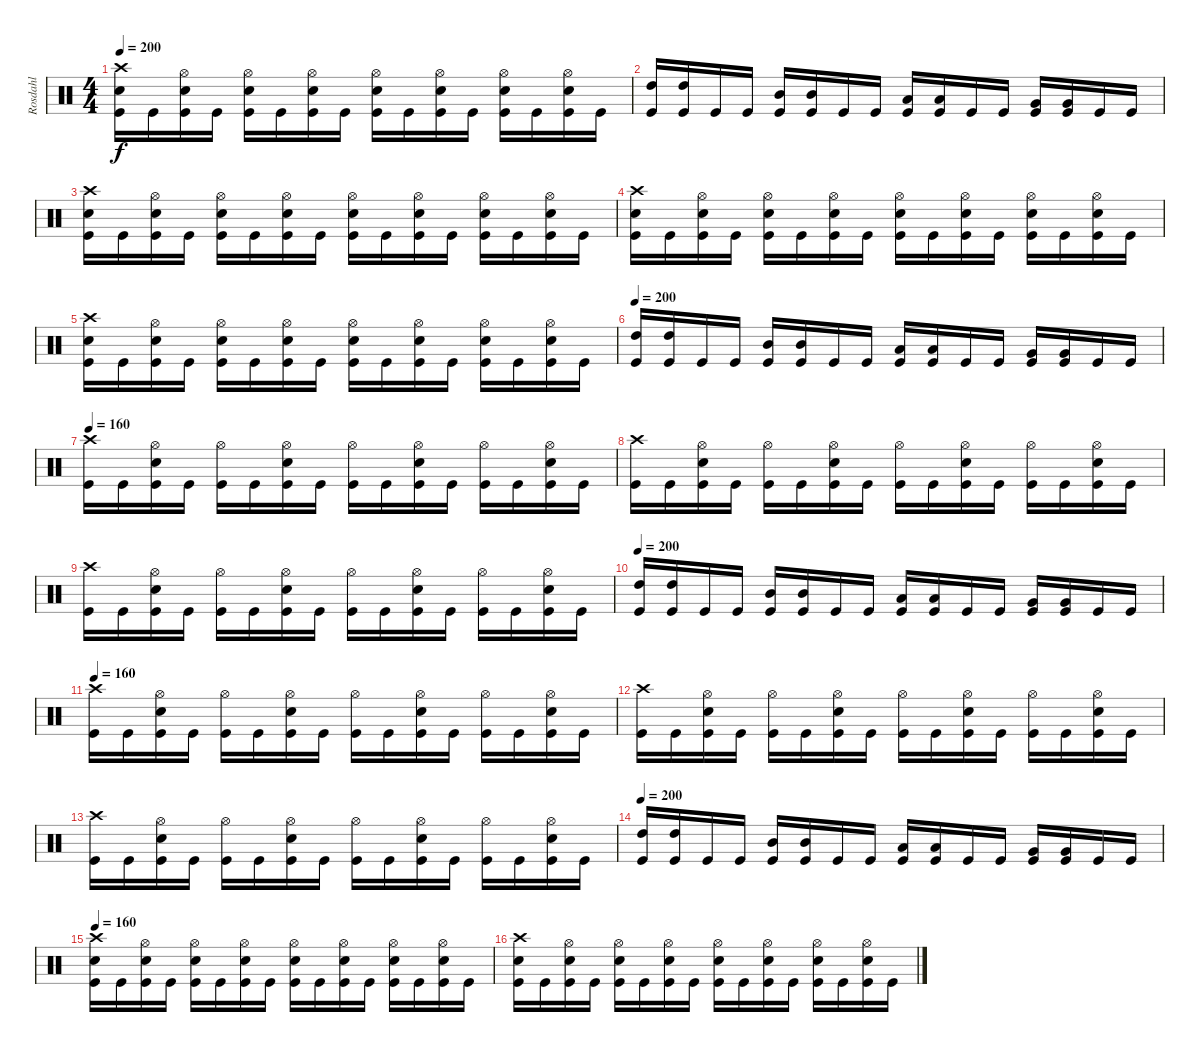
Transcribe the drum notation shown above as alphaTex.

\track ("Rosdahl" "Rosdahl") {instrument percussion}
\staff {score}
\articulation defaults
\ts (4 4)
\tempo 200
\clef neutral
\ks c
("Crash high (hit)" "Electric Snare (hit)" "Kick (hit)").16{dy f} "Kick (hit)".16 ("Hi-Hat (open)" "Electric Snare (hit)" "Kick (hit)").16 "Kick (hit)".16 ("Hi-Hat (open)" "Electric Snare (hit)" "Kick (hit)").16 "Kick (hit)".16 ("Hi-Hat (open)" "Electric Snare (hit)" "Kick (hit)").16 "Kick (hit)".16 ("Hi-Hat (open)" "Electric Snare (hit)" "Kick (hit)").16 "Kick (hit)".16 ("Hi-Hat (open)" "Electric Snare (hit)" "Kick (hit)").16 "Kick (hit)".16 ("Hi-Hat (open)" "Electric Snare (hit)" "Kick (hit)").16 "Kick (hit)".16 ("Hi-Hat (open)" "Electric Snare (hit)" "Kick (hit)").16 "Kick (hit)".16 |
("High Tom (hit)" "Kick (hit)").16 ("High Tom (hit)" "Kick (hit)").16 "Kick (hit)".16 "Kick (hit)".16 ("Mid Tom (hit)" "Kick (hit)").16 ("Mid Tom (hit)" "Kick (hit)").16 "Kick (hit)".16 "Kick (hit)".16 ("Low Tom (hit)" "Kick (hit)").16 ("Low Tom (hit)" "Kick (hit)").16 "Kick (hit)".16 "Kick (hit)".16 ("Very Low Tom (hit)" "Kick (hit)").16 ("Very Low Tom (hit)" "Kick (hit)").16 "Kick (hit)".16 "Kick (hit)".16 |
("Crash high (hit)" "Electric Snare (hit)" "Kick (hit)").16 "Kick (hit)".16 ("Hi-Hat (open)" "Electric Snare (hit)" "Kick (hit)").16 "Kick (hit)".16 ("Hi-Hat (open)" "Electric Snare (hit)" "Kick (hit)").16 "Kick (hit)".16 ("Hi-Hat (open)" "Electric Snare (hit)" "Kick (hit)").16 "Kick (hit)".16 ("Hi-Hat (open)" "Electric Snare (hit)" "Kick (hit)").16 "Kick (hit)".16 ("Hi-Hat (open)" "Electric Snare (hit)" "Kick (hit)").16 "Kick (hit)".16 ("Hi-Hat (open)" "Electric Snare (hit)" "Kick (hit)").16 "Kick (hit)".16 ("Hi-Hat (open)" "Electric Snare (hit)" "Kick (hit)").16 "Kick (hit)".16 |
("Crash high (hit)" "Electric Snare (hit)" "Kick (hit)").16 "Kick (hit)".16 ("Hi-Hat (open)" "Electric Snare (hit)" "Kick (hit)").16 "Kick (hit)".16 ("Hi-Hat (open)" "Electric Snare (hit)" "Kick (hit)").16 "Kick (hit)".16 ("Hi-Hat (open)" "Electric Snare (hit)" "Kick (hit)").16 "Kick (hit)".16 ("Hi-Hat (open)" "Electric Snare (hit)" "Kick (hit)").16 "Kick (hit)".16 ("Hi-Hat (open)" "Electric Snare (hit)" "Kick (hit)").16 "Kick (hit)".16 ("Hi-Hat (open)" "Electric Snare (hit)" "Kick (hit)").16 "Kick (hit)".16 ("Hi-Hat (open)" "Electric Snare (hit)" "Kick (hit)").16 "Kick (hit)".16 |
("Crash high (hit)" "Electric Snare (hit)" "Kick (hit)").16 "Kick (hit)".16 ("Hi-Hat (open)" "Electric Snare (hit)" "Kick (hit)").16 "Kick (hit)".16 ("Hi-Hat (open)" "Electric Snare (hit)" "Kick (hit)").16 "Kick (hit)".16 ("Hi-Hat (open)" "Electric Snare (hit)" "Kick (hit)").16 "Kick (hit)".16 ("Hi-Hat (open)" "Electric Snare (hit)" "Kick (hit)").16 "Kick (hit)".16 ("Hi-Hat (open)" "Electric Snare (hit)" "Kick (hit)").16 "Kick (hit)".16 ("Hi-Hat (open)" "Electric Snare (hit)" "Kick (hit)").16 "Kick (hit)".16 ("Hi-Hat (open)" "Electric Snare (hit)" "Kick (hit)").16 "Kick (hit)".16 |
\tempo 200
("High Tom (hit)" "Kick (hit)").16 ("High Tom (hit)" "Kick (hit)").16 "Kick (hit)".16 "Kick (hit)".16 ("Mid Tom (hit)" "Kick (hit)").16 ("Mid Tom (hit)" "Kick (hit)").16 "Kick (hit)".16 "Kick (hit)".16 ("Low Tom (hit)" "Kick (hit)").16 ("Low Tom (hit)" "Kick (hit)").16 "Kick (hit)".16 "Kick (hit)".16 ("Very Low Tom (hit)" "Kick (hit)").16 ("Very Low Tom (hit)" "Kick (hit)").16 "Kick (hit)".16 "Kick (hit)".16 |
\tempo 160
("Crash high (hit)" "Kick (hit)").16 "Kick (hit)".16 ("Hi-Hat (open)" "Electric Snare (hit)" "Kick (hit)").16 "Kick (hit)".16 ("Hi-Hat (open)" "Kick (hit)").16 "Kick (hit)".16 ("Hi-Hat (open)" "Electric Snare (hit)" "Kick (hit)").16 "Kick (hit)".16 ("Hi-Hat (open)" "Kick (hit)").16 "Kick (hit)".16 ("Hi-Hat (open)" "Electric Snare (hit)" "Kick (hit)").16 "Kick (hit)".16 ("Hi-Hat (open)" "Kick (hit)").16 "Kick (hit)".16 ("Hi-Hat (open)" "Electric Snare (hit)" "Kick (hit)").16 "Kick (hit)".16 |
("Crash high (hit)" "Kick (hit)").16 "Kick (hit)".16 ("Hi-Hat (open)" "Electric Snare (hit)" "Kick (hit)").16 "Kick (hit)".16 ("Hi-Hat (open)" "Kick (hit)").16 "Kick (hit)".16 ("Hi-Hat (open)" "Electric Snare (hit)" "Kick (hit)").16 "Kick (hit)".16 ("Hi-Hat (open)" "Kick (hit)").16 "Kick (hit)".16 ("Hi-Hat (open)" "Electric Snare (hit)" "Kick (hit)").16 "Kick (hit)".16 ("Hi-Hat (open)" "Kick (hit)").16 "Kick (hit)".16 ("Hi-Hat (open)" "Electric Snare (hit)" "Kick (hit)").16 "Kick (hit)".16 |
("Crash high (hit)" "Kick (hit)").16 "Kick (hit)".16 ("Hi-Hat (open)" "Electric Snare (hit)" "Kick (hit)").16 "Kick (hit)".16 ("Hi-Hat (open)" "Kick (hit)").16 "Kick (hit)".16 ("Hi-Hat (open)" "Electric Snare (hit)" "Kick (hit)").16 "Kick (hit)".16 ("Hi-Hat (open)" "Kick (hit)").16 "Kick (hit)".16 ("Hi-Hat (open)" "Electric Snare (hit)" "Kick (hit)").16 "Kick (hit)".16 ("Hi-Hat (open)" "Kick (hit)").16 "Kick (hit)".16 ("Hi-Hat (open)" "Electric Snare (hit)" "Kick (hit)").16 "Kick (hit)".16 |
\tempo 200
("High Tom (hit)" "Kick (hit)").16 ("High Tom (hit)" "Kick (hit)").16 "Kick (hit)".16 "Kick (hit)".16 ("Mid Tom (hit)" "Kick (hit)").16 ("Mid Tom (hit)" "Kick (hit)").16 "Kick (hit)".16 "Kick (hit)".16 ("Low Tom (hit)" "Kick (hit)").16 ("Low Tom (hit)" "Kick (hit)").16 "Kick (hit)".16 "Kick (hit)".16 ("Very Low Tom (hit)" "Kick (hit)").16 ("Very Low Tom (hit)" "Kick (hit)").16 "Kick (hit)".16 "Kick (hit)".16 |
\tempo 160
("Crash high (hit)" "Kick (hit)").16 "Kick (hit)".16 ("Hi-Hat (open)" "Electric Snare (hit)" "Kick (hit)").16 "Kick (hit)".16 ("Hi-Hat (open)" "Kick (hit)").16 "Kick (hit)".16 ("Hi-Hat (open)" "Electric Snare (hit)" "Kick (hit)").16 "Kick (hit)".16 ("Hi-Hat (open)" "Kick (hit)").16 "Kick (hit)".16 ("Hi-Hat (open)" "Electric Snare (hit)" "Kick (hit)").16 "Kick (hit)".16 ("Hi-Hat (open)" "Kick (hit)").16 "Kick (hit)".16 ("Hi-Hat (open)" "Electric Snare (hit)" "Kick (hit)").16 "Kick (hit)".16 |
("Crash high (hit)" "Kick (hit)").16 "Kick (hit)".16 ("Hi-Hat (open)" "Electric Snare (hit)" "Kick (hit)").16 "Kick (hit)".16 ("Hi-Hat (open)" "Kick (hit)").16 "Kick (hit)".16 ("Hi-Hat (open)" "Electric Snare (hit)" "Kick (hit)").16 "Kick (hit)".16 ("Hi-Hat (open)" "Kick (hit)").16 "Kick (hit)".16 ("Hi-Hat (open)" "Electric Snare (hit)" "Kick (hit)").16 "Kick (hit)".16 ("Hi-Hat (open)" "Kick (hit)").16 "Kick (hit)".16 ("Hi-Hat (open)" "Electric Snare (hit)" "Kick (hit)").16 "Kick (hit)".16 |
("Crash high (hit)" "Kick (hit)").16 "Kick (hit)".16 ("Hi-Hat (open)" "Electric Snare (hit)" "Kick (hit)").16 "Kick (hit)".16 ("Hi-Hat (open)" "Kick (hit)").16 "Kick (hit)".16 ("Hi-Hat (open)" "Electric Snare (hit)" "Kick (hit)").16 "Kick (hit)".16 ("Hi-Hat (open)" "Kick (hit)").16 "Kick (hit)".16 ("Hi-Hat (open)" "Electric Snare (hit)" "Kick (hit)").16 "Kick (hit)".16 ("Hi-Hat (open)" "Kick (hit)").16 "Kick (hit)".16 ("Hi-Hat (open)" "Electric Snare (hit)" "Kick (hit)").16 "Kick (hit)".16 |
\tempo 200
("High Tom (hit)" "Kick (hit)").16 ("High Tom (hit)" "Kick (hit)").16 "Kick (hit)".16 "Kick (hit)".16 ("Mid Tom (hit)" "Kick (hit)").16 ("Mid Tom (hit)" "Kick (hit)").16 "Kick (hit)".16 "Kick (hit)".16 ("Low Tom (hit)" "Kick (hit)").16 ("Low Tom (hit)" "Kick (hit)").16 "Kick (hit)".16 "Kick (hit)".16 ("Very Low Tom (hit)" "Kick (hit)").16 ("Very Low Tom (hit)" "Kick (hit)").16 "Kick (hit)".16 "Kick (hit)".16 |
\tempo 160
("Crash high (hit)" "Electric Snare (hit)" "Kick (hit)").16 "Kick (hit)".16 ("Hi-Hat (open)" "Electric Snare (hit)" "Kick (hit)").16 "Kick (hit)".16 ("Hi-Hat (open)" "Electric Snare (hit)" "Kick (hit)").16 "Kick (hit)".16 ("Hi-Hat (open)" "Electric Snare (hit)" "Kick (hit)").16 "Kick (hit)".16 ("Hi-Hat (open)" "Electric Snare (hit)" "Kick (hit)").16 "Kick (hit)".16 ("Hi-Hat (open)" "Electric Snare (hit)" "Kick (hit)").16 "Kick (hit)".16 ("Hi-Hat (open)" "Electric Snare (hit)" "Kick (hit)").16 "Kick (hit)".16 ("Hi-Hat (open)" "Electric Snare (hit)" "Kick (hit)").16 "Kick (hit)".16 |
("Crash high (hit)" "Electric Snare (hit)" "Kick (hit)").16 "Kick (hit)".16 ("Hi-Hat (open)" "Electric Snare (hit)" "Kick (hit)").16 "Kick (hit)".16 ("Hi-Hat (open)" "Electric Snare (hit)" "Kick (hit)").16 "Kick (hit)".16 ("Hi-Hat (open)" "Electric Snare (hit)" "Kick (hit)").16 "Kick (hit)".16 ("Hi-Hat (open)" "Electric Snare (hit)" "Kick (hit)").16 "Kick (hit)".16 ("Hi-Hat (open)" "Electric Snare (hit)" "Kick (hit)").16 "Kick (hit)".16 ("Hi-Hat (open)" "Electric Snare (hit)" "Kick (hit)").16 "Kick (hit)".16 ("Hi-Hat (open)" "Electric Snare (hit)" "Kick (hit)").16 "Kick (hit)".16
